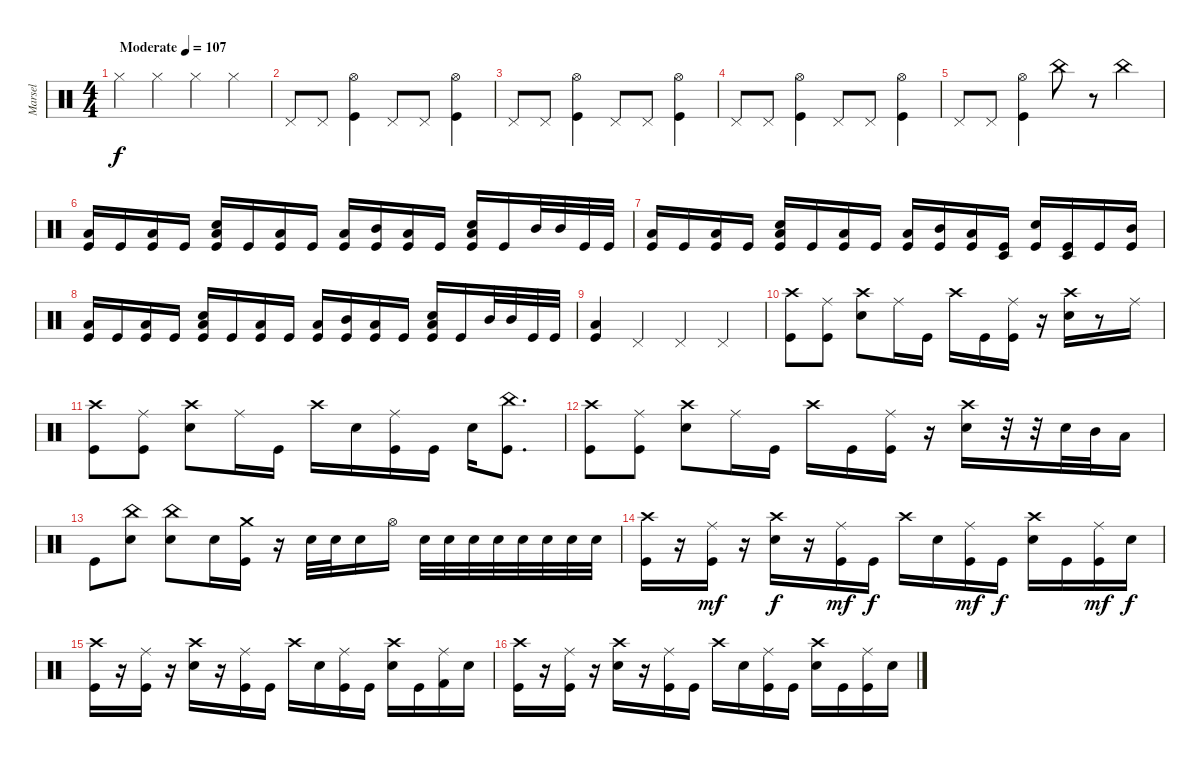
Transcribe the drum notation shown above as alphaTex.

\track ("Marsel" "Marsel") {instrument percussion}
\staff {score}
\articulation defaults
\ts (4 4)
\tempo (107 "Moderate")
\clef neutral
\ks c "Hi-Hat (closed)".4{dy f} "Hi-Hat (closed)".4 "Hi-Hat (closed)".4 "Hi-Hat (closed)".4
|
"Pedal Hi-Hat (hit)".8 "Pedal Hi-Hat (hit)".8 ("Hi-Hat (open)" "Kick (hit)").4 "Pedal Hi-Hat (hit)".8 "Pedal Hi-Hat (hit)".8 ("Hi-Hat (open)" "Kick (hit)").4 |
"Pedal Hi-Hat (hit)".8 "Pedal Hi-Hat (hit)".8 ("Hi-Hat (open)" "Kick (hit)").4 "Pedal Hi-Hat (hit)".8 "Pedal Hi-Hat (hit)".8 ("Hi-Hat (open)" "Kick (hit)").4 |
"Pedal Hi-Hat (hit)".8 "Pedal Hi-Hat (hit)".8 ("Hi-Hat (open)" "Kick (hit)").4 "Pedal Hi-Hat (hit)".8 "Pedal Hi-Hat (hit)".8 ("Hi-Hat (open)" "Kick (hit)").4 |
"Pedal Hi-Hat (hit)".8 "Pedal Hi-Hat (hit)".8 ("Hi-Hat (open)" "Kick (hit)").4 "China (hit)".8 r.8 "China (hit)".4 |
("Low Tom (hit)" "Kick (hit)").16 "Kick (hit)".16 ("Low Tom (hit)" "Kick (hit)").16 "Kick (hit)".16 ("Snare (hit) 2" "Low Tom (hit)" "Kick (hit)").16 "Kick (hit)".16 ("Low Tom (hit)" "Kick (hit)").16 "Kick (hit)".16 ("Low Tom (hit)" "Kick (hit)").16 ("Mid Tom (hit)" "Kick (hit)").16 ("Low Tom (hit)" "Kick (hit)").16 "Kick (hit)".16 ("Snare (hit) 2" "Low Tom (hit)" "Kick (hit)").16 "Kick (hit)".16 "Mid Tom (hit)".32 "Mid Tom (hit)".32 "Kick (hit)".32 "Kick (hit)".32 |
("Low Tom (hit)" "Kick (hit)").16 "Kick (hit)".16 ("Low Tom (hit)" "Kick (hit)").16 "Kick (hit)".16 ("Snare (hit) 2" "Low Tom (hit)" "Kick (hit)").16 "Kick (hit)".16 ("Low Tom (hit)" "Kick (hit)").16 "Kick (hit)".16 ("Low Tom (hit)" "Kick (hit)").16 ("Mid Tom (hit)" "Kick (hit)").16 ("Low Tom (hit)" "Kick (hit)").16 ("Timbale low (hit)" "Kick (hit)").16 ("Snare (hit) 2" "Kick (hit)").16 ("Timbale low (hit)" "Kick (hit)").16 "Kick (hit)".16 ("Mid Tom (hit)" "Kick (hit)").16 |
("Low Tom (hit)" "Kick (hit)").16 "Kick (hit)".16 ("Low Tom (hit)" "Kick (hit)").16 "Kick (hit)".16 ("Snare (hit) 2" "Low Tom (hit)" "Kick (hit)").16 "Kick (hit)".16 ("Low Tom (hit)" "Kick (hit)").16 "Kick (hit)".16 ("Low Tom (hit)" "Kick (hit)").16 ("Mid Tom (hit)" "Kick (hit)").16 ("Low Tom (hit)" "Kick (hit)").16 "Kick (hit)".16 ("Snare (hit) 2" "Low Tom (hit)" "Kick (hit)").16 "Kick (hit)".16 "Mid Tom (hit)".32 "Mid Tom (hit)".32 "Kick (hit)".32 "Kick (hit)".32 |
("Low Tom (hit)" "Kick (hit)").4 "Pedal Hi-Hat (hit)".4 "Pedal Hi-Hat (hit)".4 "Pedal Hi-Hat (hit)".4 |
("Crash high (hit)" "Kick (hit)").8 ("Ride (middle)" "Kick (hit)").8 ("Crash high (hit)" "Snare (hit) 2").8 "Ride (middle)".16 "Kick (hit)".16 "Crash high (hit)".16 "Kick (hit)".16 ("Ride (middle)" "Kick (hit)").16 r.16 ("Crash high (hit)" "Snare (hit) 2").16 r.8 "Ride (middle)".16 |
("Crash high (hit)" "Kick (hit)").8 ("Ride (middle)" "Kick (hit)").8 ("Crash high (hit)" "Snare (hit) 2").8 "Ride (middle)".16 "Kick (hit)".16 "Crash high (hit)".16 "Snare (hit) 2".16 ("Ride (middle)" "Kick (hit)").16 "Kick (hit)".16 "Snare (hit) 2".16 ("China (hit)" "Kick (hit)").8{d} |
("Crash high (hit)" "Kick (hit)").8 ("Ride (middle)" "Kick (hit)").8 ("Crash high (hit)" "Snare (hit) 2").8 "Ride (middle)".16 "Kick (hit)".16 "Crash high (hit)".16 "Kick (hit)".16 ("Ride (middle)" "Kick (hit)").16 r.16 ("Crash high (hit)" "Snare (hit) 2").16 r.32 r.32 "Snare (hit) 2".32 "Mid Tom (hit)".32 "Low Tom (hit)".16 |
"Kick (hit)".8 ("China (hit)" "Snare (hit) 2").8 ("China (hit)" "Snare (hit) 2").8 "Snare (hit) 2".16 ("Crash medium (hit)" "Kick (hit)").16 r.16 "Snare (hit) 2".32 "Snare (hit) 2".32 "Snare (hit) 2".16 "Hi-Hat (open)".16 "Snare (hit) 2".32 "Snare (hit) 2".32 "Snare (hit) 2".32 "Snare (hit) 2".32 "Snare (hit) 2".32 "Snare (hit) 2".32 "Snare (hit) 2".32 "Snare (hit) 2".32 |
("Crash high (hit)" "Kick (hit)").16 r.16 ("Ride (middle)" "Kick (hit)").16{dy mf} r.16 ("Crash high (hit)" "Snare (hit) 2").16{dy f} r.16 ("Ride (middle)" "Kick (hit)").16{dy mf} "Kick (hit)".16{dy f} "Crash high (hit)".16 "Snare (hit) 2".16 ("Ride (middle)" "Kick (hit)").16{dy mf} "Kick (hit)".16{dy f} ("Crash high (hit)" "Snare (hit) 2").16 "Kick (hit)".16 ("Ride (middle)" "Kick (hit)").16{dy mf} "Snare (hit) 2".16{dy f} |
("Crash high (hit)" "Kick (hit)").16 r.16 ("Ride (middle)" "Kick (hit)").16 r.16 ("Crash high (hit)" "Snare (hit) 2").16 r.16 ("Ride (middle)" "Kick (hit)").16 "Kick (hit)".16 "Crash high (hit)".16 "Snare (hit) 2".16 ("Ride (middle)" "Kick (hit)").16 "Kick (hit)".16 ("Crash high (hit)" "Snare (hit) 2").16 "Kick (hit)".16 ("Ride (middle)" "Kick (hit) 2").16 "Snare (hit) 2".16 |
("Crash high (hit)" "Kick (hit)").16 r.16 ("Ride (middle)" "Kick (hit)").16 r.16 ("Crash high (hit)" "Snare (hit) 2").16 r.16 ("Ride (middle)" "Kick (hit)").16 "Kick (hit)".16 "Crash high (hit)".16 "Snare (hit) 2".16 ("Ride (middle)" "Kick (hit)").16 "Kick (hit)".16 ("Crash high (hit)" "Snare (hit) 2").16 "Kick (hit)".16 ("Ride (middle)" "Kick (hit)").16 "Snare (hit) 2".16
